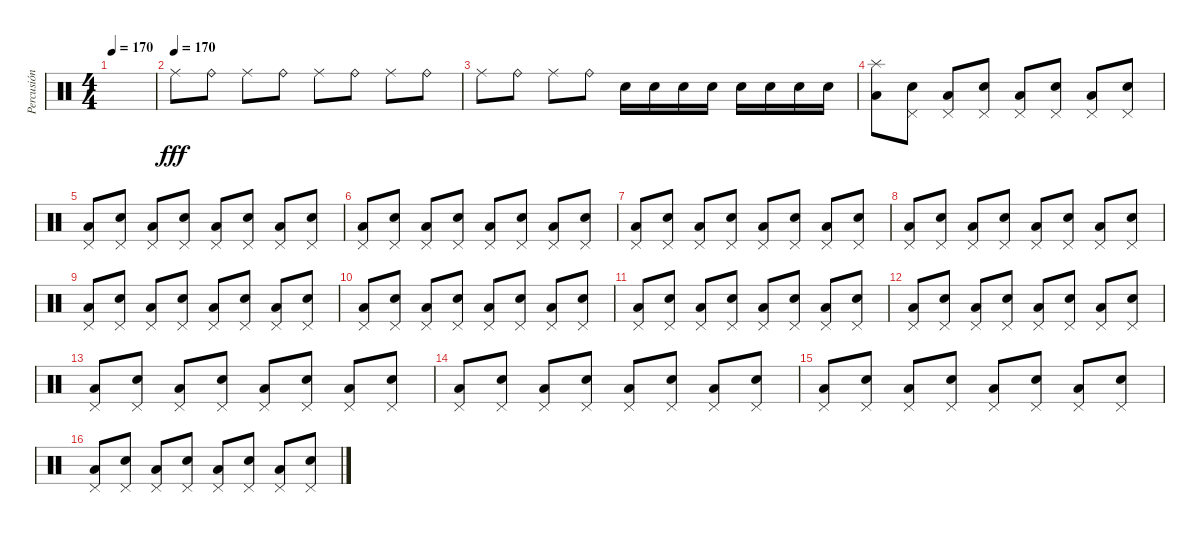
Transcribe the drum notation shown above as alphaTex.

\track ("Percusión" "Percusión") {instrument percussion}
\staff {score}
\articulation defaults
\ts (4 4)
\tempo 170
\clef neutral
\ks c
|
\tempo (170)
"Ride (middle)".8{dy fff} "Ride (bell)".8 "Ride (middle)".8 "Ride (bell)".8 "Ride (middle)".8 "Ride (bell)".8 "Ride (middle)".8 "Ride (bell)".8 |
"Ride (middle)".8 "Ride (bell)".8 "Ride (middle)".8 "Ride (bell)".8 "Snare (hit) 2".16 "Snare (hit) 2".16 "Snare (hit) 2".16 "Snare (hit) 2".16 "Snare (hit) 2".16 "Snare (hit) 2".16 "Snare (hit) 2".16 "Snare (hit) 2".16 |
("Splash (hit)" "Low Tom (hit)").8 ("Pedal Hi-Hat (hit)" "Electric Snare (hit)").8 ("Pedal Hi-Hat (hit)" "Low Tom (hit)").8 ("Pedal Hi-Hat (hit)" "Electric Snare (hit)").8 ("Pedal Hi-Hat (hit)" "Low Tom (hit)").8 ("Pedal Hi-Hat (hit)" "Electric Snare (hit)").8 ("Pedal Hi-Hat (hit)" "Low Tom (hit)").8 ("Pedal Hi-Hat (hit)" "Electric Snare (hit)").8 |
("Pedal Hi-Hat (hit)" "Low Tom (hit)").8 ("Pedal Hi-Hat (hit)" "Electric Snare (hit)").8 ("Pedal Hi-Hat (hit)" "Low Tom (hit)").8 ("Pedal Hi-Hat (hit)" "Electric Snare (hit)").8 ("Pedal Hi-Hat (hit)" "Low Tom (hit)").8 ("Pedal Hi-Hat (hit)" "Electric Snare (hit)").8 ("Pedal Hi-Hat (hit)" "Low Tom (hit)").8 ("Pedal Hi-Hat (hit)" "Electric Snare (hit)").8 |
("Pedal Hi-Hat (hit)" "Low Tom (hit)").8 ("Pedal Hi-Hat (hit)" "Electric Snare (hit)").8 ("Pedal Hi-Hat (hit)" "Low Tom (hit)").8 ("Pedal Hi-Hat (hit)" "Electric Snare (hit)").8 ("Pedal Hi-Hat (hit)" "Low Tom (hit)").8 ("Pedal Hi-Hat (hit)" "Electric Snare (hit)").8 ("Pedal Hi-Hat (hit)" "Low Tom (hit)").8 ("Pedal Hi-Hat (hit)" "Electric Snare (hit)").8 |
("Pedal Hi-Hat (hit)" "Low Tom (hit)").8 ("Pedal Hi-Hat (hit)" "Electric Snare (hit)").8 ("Pedal Hi-Hat (hit)" "Low Tom (hit)").8 ("Pedal Hi-Hat (hit)" "Electric Snare (hit)").8 ("Pedal Hi-Hat (hit)" "Low Tom (hit)").8 ("Pedal Hi-Hat (hit)" "Electric Snare (hit)").8 ("Pedal Hi-Hat (hit)" "Low Tom (hit)").8 ("Pedal Hi-Hat (hit)" "Electric Snare (hit)").8 |
("Pedal Hi-Hat (hit)" "Low Tom (hit)").8 ("Pedal Hi-Hat (hit)" "Electric Snare (hit)").8 ("Pedal Hi-Hat (hit)" "Low Tom (hit)").8 ("Pedal Hi-Hat (hit)" "Electric Snare (hit)").8 ("Pedal Hi-Hat (hit)" "Low Tom (hit)").8 ("Pedal Hi-Hat (hit)" "Electric Snare (hit)").8 ("Pedal Hi-Hat (hit)" "Low Tom (hit)").8 ("Pedal Hi-Hat (hit)" "Electric Snare (hit)").8 |
("Pedal Hi-Hat (hit)" "Low Tom (hit)").8 ("Pedal Hi-Hat (hit)" "Electric Snare (hit)").8 ("Pedal Hi-Hat (hit)" "Low Tom (hit)").8 ("Pedal Hi-Hat (hit)" "Electric Snare (hit)").8 ("Pedal Hi-Hat (hit)" "Low Tom (hit)").8 ("Pedal Hi-Hat (hit)" "Electric Snare (hit)").8 ("Pedal Hi-Hat (hit)" "Low Tom (hit)").8 ("Pedal Hi-Hat (hit)" "Electric Snare (hit)").8 |
("Pedal Hi-Hat (hit)" "Low Tom (hit)").8 ("Pedal Hi-Hat (hit)" "Electric Snare (hit)").8 ("Pedal Hi-Hat (hit)" "Low Tom (hit)").8 ("Pedal Hi-Hat (hit)" "Electric Snare (hit)").8 ("Pedal Hi-Hat (hit)" "Low Tom (hit)").8 ("Pedal Hi-Hat (hit)" "Electric Snare (hit)").8 ("Pedal Hi-Hat (hit)" "Low Tom (hit)").8 ("Pedal Hi-Hat (hit)" "Electric Snare (hit)").8 |
("Pedal Hi-Hat (hit)" "Low Tom (hit)").8 ("Pedal Hi-Hat (hit)" "Electric Snare (hit)").8 ("Pedal Hi-Hat (hit)" "Low Tom (hit)").8 ("Pedal Hi-Hat (hit)" "Electric Snare (hit)").8 ("Pedal Hi-Hat (hit)" "Low Tom (hit)").8 ("Pedal Hi-Hat (hit)" "Electric Snare (hit)").8 ("Pedal Hi-Hat (hit)" "Low Tom (hit)").8 ("Pedal Hi-Hat (hit)" "Electric Snare (hit)").8 |
("Pedal Hi-Hat (hit)" "Low Tom (hit)").8 ("Pedal Hi-Hat (hit)" "Electric Snare (hit)").8 ("Pedal Hi-Hat (hit)" "Low Tom (hit)").8 ("Pedal Hi-Hat (hit)" "Electric Snare (hit)").8 ("Pedal Hi-Hat (hit)" "Low Tom (hit)").8 ("Pedal Hi-Hat (hit)" "Electric Snare (hit)").8 ("Pedal Hi-Hat (hit)" "Low Tom (hit)").8 ("Pedal Hi-Hat (hit)" "Electric Snare (hit)").8 |
("Pedal Hi-Hat (hit)" "Low Tom (hit)").8 ("Pedal Hi-Hat (hit)" "Electric Snare (hit)").8 ("Pedal Hi-Hat (hit)" "Low Tom (hit)").8 ("Pedal Hi-Hat (hit)" "Electric Snare (hit)").8 ("Pedal Hi-Hat (hit)" "Low Tom (hit)").8 ("Pedal Hi-Hat (hit)" "Electric Snare (hit)").8 ("Pedal Hi-Hat (hit)" "Low Tom (hit)").8 ("Pedal Hi-Hat (hit)" "Electric Snare (hit)").8 |
("Pedal Hi-Hat (hit)" "Low Tom (hit)").8 ("Pedal Hi-Hat (hit)" "Electric Snare (hit)").8 ("Pedal Hi-Hat (hit)" "Low Tom (hit)").8 ("Pedal Hi-Hat (hit)" "Electric Snare (hit)").8 ("Pedal Hi-Hat (hit)" "Low Tom (hit)").8 ("Pedal Hi-Hat (hit)" "Electric Snare (hit)").8 ("Pedal Hi-Hat (hit)" "Low Tom (hit)").8 ("Pedal Hi-Hat (hit)" "Electric Snare (hit)").8 |
("Pedal Hi-Hat (hit)" "Low Tom (hit)").8 ("Pedal Hi-Hat (hit)" "Electric Snare (hit)").8 ("Pedal Hi-Hat (hit)" "Low Tom (hit)").8 ("Pedal Hi-Hat (hit)" "Electric Snare (hit)").8 ("Pedal Hi-Hat (hit)" "Low Tom (hit)").8 ("Pedal Hi-Hat (hit)" "Electric Snare (hit)").8 ("Pedal Hi-Hat (hit)" "Low Tom (hit)").8 ("Pedal Hi-Hat (hit)" "Electric Snare (hit)").8 |
("Pedal Hi-Hat (hit)" "Low Tom (hit)").8 ("Pedal Hi-Hat (hit)" "Electric Snare (hit)").8 ("Pedal Hi-Hat (hit)" "Low Tom (hit)").8 ("Pedal Hi-Hat (hit)" "Electric Snare (hit)").8 ("Pedal Hi-Hat (hit)" "Low Tom (hit)").8 ("Pedal Hi-Hat (hit)" "Electric Snare (hit)").8 ("Pedal Hi-Hat (hit)" "Low Tom (hit)").8 ("Pedal Hi-Hat (hit)" "Electric Snare (hit)").8
